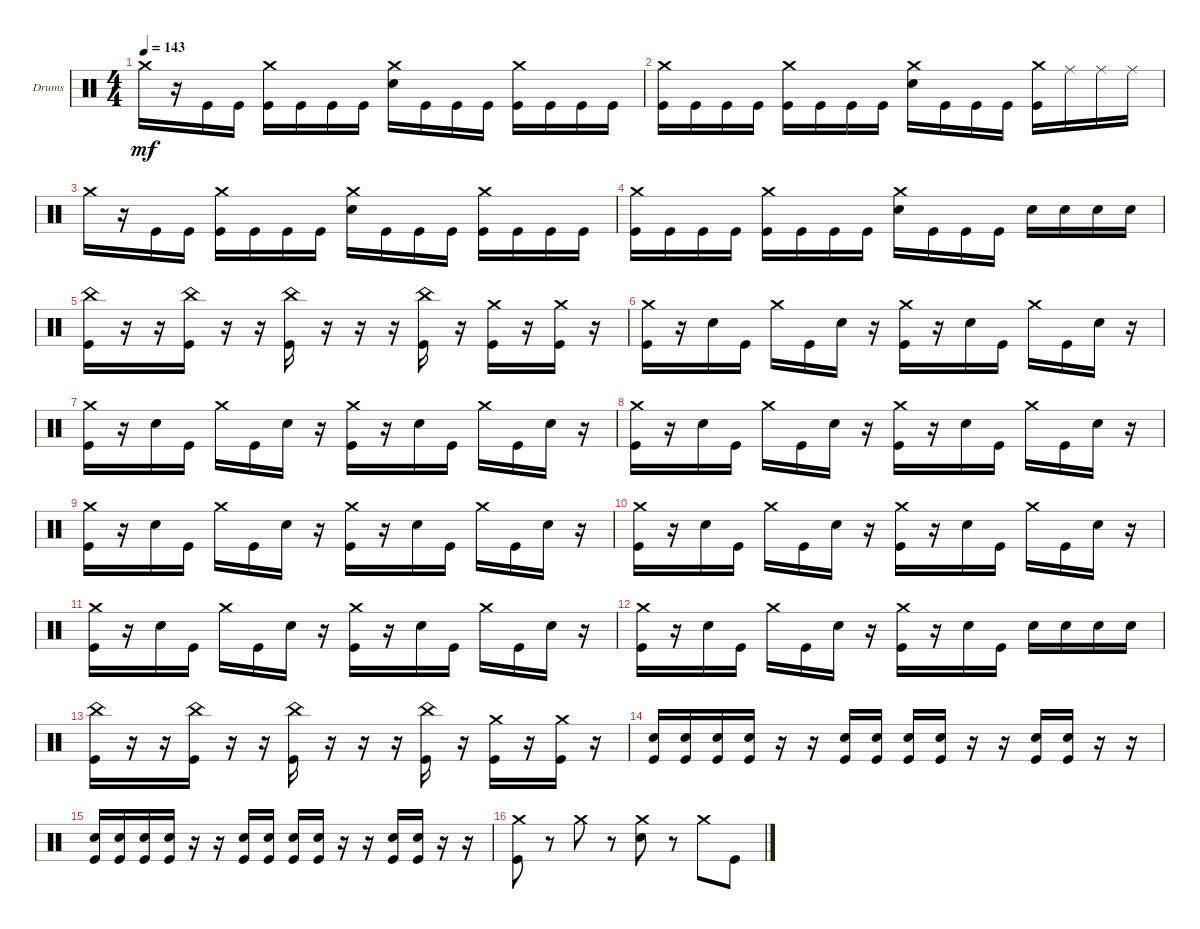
\defaultSystemsLayout 4
\bracketExtendMode groupsimilarinstruments
\firstSystemTrackNameOrientation horizontal
\otherSystemsTrackNameOrientation horizontal
\track ("Drumkit" "Drums") {instrument percussion}
\staff {score}
\articulation defaults
\ts (4 4)
\tempo 143
\clef neutral
\scale
0.333333
\ks c "Crash medium (hit)".16{dy mf}
r.16 "Kick (hit)".16 "Kick (hit)".16 ("Kick (hit)" "Crash medium (hit)").16 "Kick (hit)".16 "Kick (hit)".16 "Kick (hit)".16 ("Snare (hit) 2" "Crash medium (hit)").16 "Kick (hit)".16 "Kick (hit)".16 "Kick (hit)".16 ("Kick (hit)" "Crash medium (hit)").16 "Kick (hit)".16 "Kick (hit)".16 "Kick (hit)".16 |
\scale
0.333333 ("Kick (hit)" "Crash medium (hit)").16 "Kick (hit)".16 "Kick (hit)".16 "Kick (hit)".16 ("Kick (hit)" "Crash medium (hit)").16 "Kick (hit)".16 "Kick (hit)".16 "Kick (hit)".16 ("Snare (hit) 2" "Crash medium (hit)").16 "Kick (hit)".16 "Kick (hit)".16 "Kick (hit)".16 ("Kick (hit)" "Crash medium (hit)").16 "Ride (middle)".16 "Ride (middle)".16 "Ride (middle)".16 |
\scale
0.333333 "Crash medium (hit)".16 r.16 "Kick (hit)".16 "Kick (hit)".16 ("Kick (hit)" "Crash medium (hit)").16 "Kick (hit)".16 "Kick (hit)".16 "Kick (hit)".16 ("Snare (hit) 2" "Crash medium (hit)").16 "Kick (hit)".16 "Kick (hit)".16 "Kick (hit)".16 ("Kick (hit)" "Crash medium (hit)").16 "Kick (hit)".16 "Kick (hit)".16 "Kick (hit)".16 |
\scale
0.333333 ("Kick (hit)" "Crash medium (hit)").16 "Kick (hit)".16 "Kick (hit)".16 "Kick (hit)".16 ("Kick (hit)" "Crash medium (hit)").16 "Kick (hit)".16 "Kick (hit)".16 "Kick (hit)".16 ("Snare (hit) 2" "Crash medium (hit)").16 "Kick (hit)".16 "Kick (hit)".16 "Kick (hit)".16 "Snare (hit) 2".16 "Snare (hit) 2".16 "Snare (hit) 2".16 "Snare (hit) 2".16 |
\scale
0.333333 ("Kick (hit)" "China (hit)").16 r.16 r.16 ("Kick (hit)" "China (hit)").16 r.16 r.16 ("Kick (hit)" "China (hit)").16 r.16 r.16 r.16 ("Kick (hit)" "China (hit)").16 r.16 ("Kick (hit)" "Crash medium (hit)").16 r.16 ("Kick (hit)" "Crash medium (hit)").16 r.16 |
\scale
0.333333 ("Kick (hit)" "Crash medium (hit)").16 r.16 "Snare (hit) 2".16 "Kick (hit)".16 "Crash medium (hit)".16 "Kick (hit)".16 "Snare (hit) 2".16 r.16 ("Kick (hit)" "Crash medium (hit)").16 r.16 "Snare (hit) 2".16 "Kick (hit)".16 "Crash medium (hit)".16 "Kick (hit)".16 "Snare (hit) 2".16 r.16 |
\scale
0.333333 ("Kick (hit)" "Crash medium (hit)").16 r.16 "Snare (hit) 2".16 "Kick (hit)".16 "Crash medium (hit)".16 "Kick (hit)".16 "Snare (hit) 2".16 r.16 ("Kick (hit)" "Crash medium (hit)").16 r.16 "Snare (hit) 2".16 "Kick (hit)".16 "Crash medium (hit)".16 "Kick (hit)".16 "Snare (hit) 2".16 r.16 |
\scale
0.333333 ("Kick (hit)" "Crash medium (hit)").16 r.16 "Snare (hit) 2".16 "Kick (hit)".16 "Crash medium (hit)".16 "Kick (hit)".16 "Snare (hit) 2".16 r.16 ("Kick (hit)" "Crash medium (hit)").16 r.16 "Snare (hit) 2".16 "Kick (hit)".16 "Crash medium (hit)".16 "Kick (hit)".16 "Snare (hit) 2".16 r.16 |
\scale
0.333333 ("Kick (hit)" "Crash medium (hit)").16 r.16 "Snare (hit) 2".16 "Kick (hit)".16 "Crash medium (hit)".16 "Kick (hit)".16 "Snare (hit) 2".16 r.16 ("Kick (hit)" "Crash medium (hit)").16 r.16 "Snare (hit) 2".16 "Kick (hit)".16 "Crash medium (hit)".16 "Kick (hit)".16 "Snare (hit) 2".16 r.16 |
\scale
0.333333 ("Kick (hit)" "Crash medium (hit)").16 r.16 "Snare (hit) 2".16 "Kick (hit)".16 "Crash medium (hit)".16 "Kick (hit)".16 "Snare (hit) 2".16 r.16 ("Kick (hit)" "Crash medium (hit)").16 r.16 "Snare (hit) 2".16 "Kick (hit)".16 "Crash medium (hit)".16 "Kick (hit)".16 "Snare (hit) 2".16 r.16 |
\scale
0.333333 ("Kick (hit)" "Crash medium (hit)").16 r.16 "Snare (hit) 2".16 "Kick (hit)".16 "Crash medium (hit)".16 "Kick (hit)".16 "Snare (hit) 2".16 r.16 ("Kick (hit)" "Crash medium (hit)").16 r.16 "Snare (hit) 2".16 "Kick (hit)".16 "Crash medium (hit)".16 "Kick (hit)".16 "Snare (hit) 2".16 r.16 |
\scale
0.333333 ("Kick (hit)" "Crash medium (hit)").16 r.16 "Snare (hit) 2".16 "Kick (hit)".16 "Crash medium (hit)".16 "Kick (hit)".16 "Snare (hit) 2".16 r.16 ("Kick (hit)" "Crash medium (hit)").16 r.16 "Snare (hit) 2".16 "Kick (hit)".16 "Snare (hit) 2".16 "Snare (hit) 2".16 "Snare (hit) 2".16 "Snare (hit) 2".16 |
\scale
0.333333 ("Kick (hit)" "China (hit)").16 r.16 r.16 ("Kick (hit)" "China (hit)").16 r.16 r.16 ("Kick (hit)" "China (hit)").16 r.16 r.16 r.16 ("Kick (hit)" "China (hit)").16 r.16 ("Kick (hit)" "Crash medium (hit)").16 r.16 ("Kick (hit)" "Crash medium (hit)").16 r.16 |
\scale
0.333333 ("Kick (hit)" "Snare (hit) 2").16 ("Kick (hit)" "Snare (hit) 2").16 ("Kick (hit)" "Snare (hit) 2").16 ("Kick (hit)" "Snare (hit) 2").16 r.16 r.16 ("Kick (hit)" "Snare (hit) 2").16 ("Kick (hit)" "Snare (hit) 2").16 ("Kick (hit)" "Snare (hit) 2").16 ("Kick (hit)" "Snare (hit) 2").16 r.16 r.16 ("Kick (hit)" "Snare (hit) 2").16 ("Kick (hit)" "Snare (hit) 2").16 r.16 r.16 |
\scale
0.333333 ("Kick (hit)" "Snare (hit) 2").16 ("Kick (hit)" "Snare (hit) 2").16 ("Kick (hit)" "Snare (hit) 2").16 ("Kick (hit)" "Snare (hit) 2").16 r.16 r.16 ("Kick (hit)" "Snare (hit) 2").16 ("Kick (hit)" "Snare (hit) 2").16 ("Kick (hit)" "Snare (hit) 2").16 ("Kick (hit)" "Snare (hit) 2").16 r.16 r.16 ("Kick (hit)" "Snare (hit) 2").16 ("Kick (hit)" "Snare (hit) 2").16 r.16 r.16 |
\scale
0.333333 ("Kick (hit)" "Crash medium (hit)").8 r.8 "Crash medium (hit)".8 r.8 ("Snare (hit) 2" "Crash medium (hit)").8 r.8 "Crash medium (hit)".8 "Kick (hit)".8
